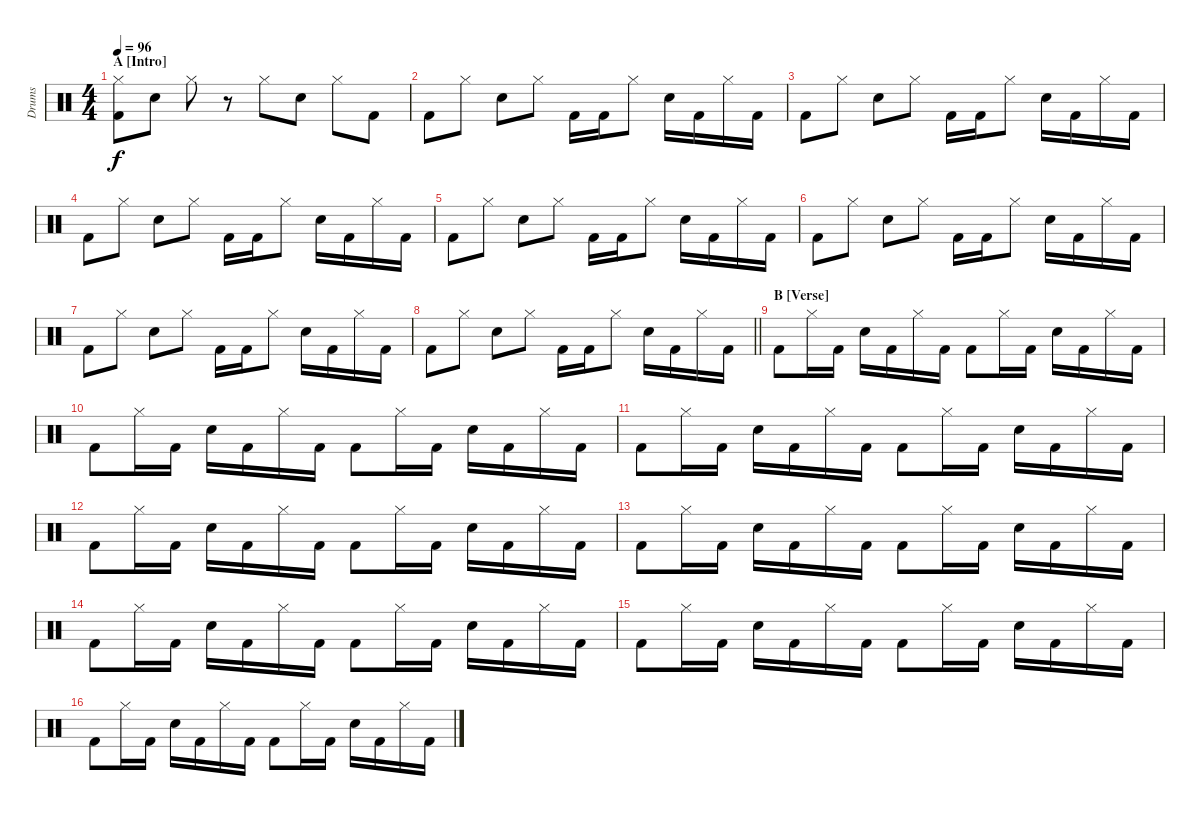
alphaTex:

\track ("Drums" "Drums") {instrument percussion}
\staff {score}
\articulation defaults
\ts (4 4)
\section ("" "A [Intro]")
\tempo 96
\clef neutral
\ks c
("Hi-Hat (closed)" "Kick (hit) 2").8{dy f} "Snare (hit) 2".8 "Hi-Hat (closed)".8 r.8 "Hi-Hat (closed)".8 "Snare (hit) 2".8 "Hi-Hat (closed)".8 "Kick (hit) 2".8 |
"Kick (hit) 2".8 "Hi-Hat (closed)".8 "Snare (hit) 2".8 "Hi-Hat (closed)".8 "Kick (hit) 2".16 "Kick (hit) 2".16 "Hi-Hat (closed)".8 "Snare (hit) 2".16 "Kick (hit) 2".16 "Hi-Hat (closed)".16 "Kick (hit) 2".16 |
"Kick (hit) 2".8 "Hi-Hat (closed)".8 "Snare (hit) 2".8 "Hi-Hat (closed)".8 "Kick (hit) 2".16 "Kick (hit) 2".16 "Hi-Hat (closed)".8 "Snare (hit) 2".16 "Kick (hit) 2".16 "Hi-Hat (closed)".16 "Kick (hit) 2".16 |
"Kick (hit) 2".8 "Hi-Hat (closed)".8 "Snare (hit) 2".8 "Hi-Hat (closed)".8 "Kick (hit) 2".16 "Kick (hit) 2".16 "Hi-Hat (closed)".8 "Snare (hit) 2".16 "Kick (hit) 2".16 "Hi-Hat (closed)".16 "Kick (hit) 2".16 |
"Kick (hit) 2".8 "Hi-Hat (closed)".8 "Snare (hit) 2".8 "Hi-Hat (closed)".8 "Kick (hit) 2".16 "Kick (hit) 2".16 "Hi-Hat (closed)".8 "Snare (hit) 2".16 "Kick (hit) 2".16 "Hi-Hat (closed)".16 "Kick (hit) 2".16 |
"Kick (hit) 2".8 "Hi-Hat (closed)".8 "Snare (hit) 2".8 "Hi-Hat (closed)".8 "Kick (hit) 2".16 "Kick (hit) 2".16 "Hi-Hat (closed)".8 "Snare (hit) 2".16 "Kick (hit) 2".16 "Hi-Hat (closed)".16 "Kick (hit) 2".16 |
"Kick (hit) 2".8 "Hi-Hat (closed)".8 "Snare (hit) 2".8 "Hi-Hat (closed)".8 "Kick (hit) 2".16 "Kick (hit) 2".16 "Hi-Hat (closed)".8 "Snare (hit) 2".16 "Kick (hit) 2".16 "Hi-Hat (closed)".16 "Kick (hit) 2".16 |
\barLineRight lightlight "Kick (hit) 2".8 "Hi-Hat (closed)".8 "Snare (hit) 2".8 "Hi-Hat (closed)".8 "Kick (hit) 2".16 "Kick (hit) 2".16 "Hi-Hat (closed)".8 "Snare (hit) 2".16 "Kick (hit) 2".16 "Hi-Hat (closed)".16 "Kick (hit) 2".16
|
\section ("" "B [Verse]")
"Kick (hit) 2".8 "Hi-Hat (closed)".16 "Kick (hit) 2".16 "Snare (hit) 2".16 "Kick (hit) 2".16 "Hi-Hat (closed)".16 "Kick (hit) 2".16 "Kick (hit) 2".8 "Hi-Hat (closed)".16 "Kick (hit) 2".16 "Snare (hit) 2".16 "Kick (hit) 2".16 "Hi-Hat (closed)".16 "Kick (hit) 2".16 |
"Kick (hit) 2".8 "Hi-Hat (closed)".16 "Kick (hit) 2".16 "Snare (hit) 2".16 "Kick (hit) 2".16 "Hi-Hat (closed)".16 "Kick (hit) 2".16 "Kick (hit) 2".8 "Hi-Hat (closed)".16 "Kick (hit) 2".16 "Snare (hit) 2".16 "Kick (hit) 2".16 "Hi-Hat (closed)".16 "Kick (hit) 2".16 |
"Kick (hit) 2".8 "Hi-Hat (closed)".16 "Kick (hit) 2".16 "Snare (hit) 2".16 "Kick (hit) 2".16 "Hi-Hat (closed)".16 "Kick (hit) 2".16 "Kick (hit) 2".8 "Hi-Hat (closed)".16 "Kick (hit) 2".16 "Snare (hit) 2".16 "Kick (hit) 2".16 "Hi-Hat (closed)".16 "Kick (hit) 2".16 |
"Kick (hit) 2".8 "Hi-Hat (closed)".16 "Kick (hit) 2".16 "Snare (hit) 2".16 "Kick (hit) 2".16 "Hi-Hat (closed)".16 "Kick (hit) 2".16 "Kick (hit) 2".8 "Hi-Hat (closed)".16 "Kick (hit) 2".16 "Snare (hit) 2".16 "Kick (hit) 2".16 "Hi-Hat (closed)".16 "Kick (hit) 2".16 |
"Kick (hit) 2".8 "Hi-Hat (closed)".16 "Kick (hit) 2".16 "Snare (hit) 2".16 "Kick (hit) 2".16 "Hi-Hat (closed)".16 "Kick (hit) 2".16 "Kick (hit) 2".8 "Hi-Hat (closed)".16 "Kick (hit) 2".16 "Snare (hit) 2".16 "Kick (hit) 2".16 "Hi-Hat (closed)".16 "Kick (hit) 2".16 |
"Kick (hit) 2".8 "Hi-Hat (closed)".16 "Kick (hit) 2".16 "Snare (hit) 2".16 "Kick (hit) 2".16 "Hi-Hat (closed)".16 "Kick (hit) 2".16 "Kick (hit) 2".8 "Hi-Hat (closed)".16 "Kick (hit) 2".16 "Snare (hit) 2".16 "Kick (hit) 2".16 "Hi-Hat (closed)".16 "Kick (hit) 2".16 |
"Kick (hit) 2".8 "Hi-Hat (closed)".16 "Kick (hit) 2".16 "Snare (hit) 2".16 "Kick (hit) 2".16 "Hi-Hat (closed)".16 "Kick (hit) 2".16 "Kick (hit) 2".8 "Hi-Hat (closed)".16 "Kick (hit) 2".16 "Snare (hit) 2".16 "Kick (hit) 2".16 "Hi-Hat (closed)".16 "Kick (hit) 2".16 |
"Kick (hit) 2".8 "Hi-Hat (closed)".16 "Kick (hit) 2".16 "Snare (hit) 2".16 "Kick (hit) 2".16 "Hi-Hat (closed)".16 "Kick (hit) 2".16 "Kick (hit) 2".8 "Hi-Hat (closed)".16 "Kick (hit) 2".16 "Snare (hit) 2".16 "Kick (hit) 2".16 "Hi-Hat (closed)".16 "Kick (hit) 2".16
